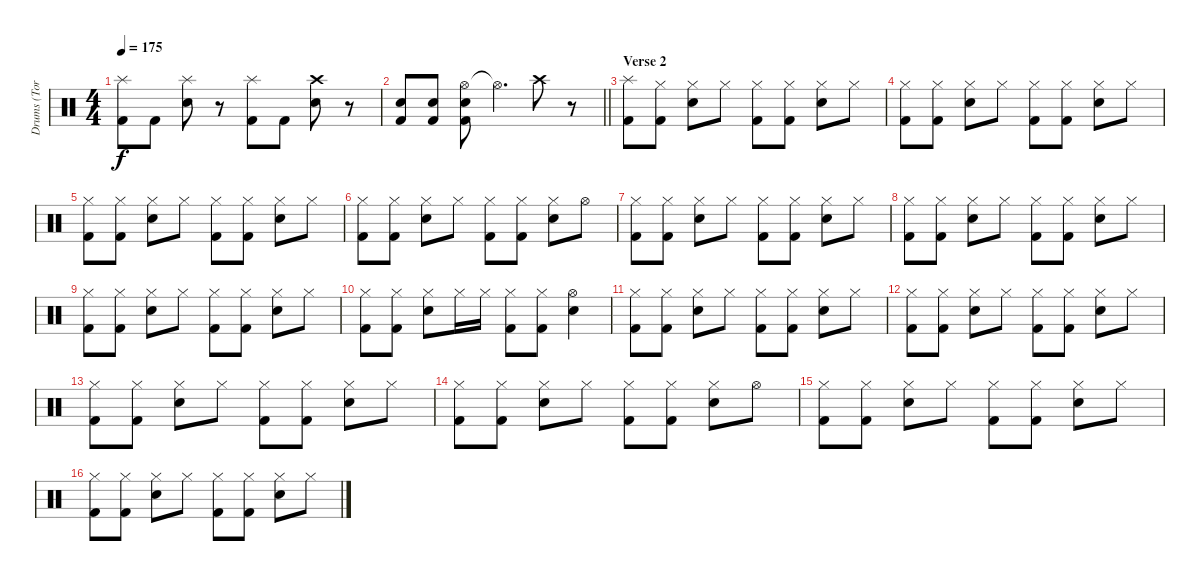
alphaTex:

\track ("Drums (Tora)" "Drums (Tor") {instrument percussion}
\staff {score}
\articulation defaults
\ts (4 4)
\tempo 175
\clef neutral
\ks c
("Splash (hit)" "Kick (hit) 2").8{dy f} "Kick (hit) 2".8 ("Splash (hit)" "Electric Snare (hit)").8 r.8 ("Splash (hit)" "Kick (hit) 2").8 "Kick (hit) 2".8 ("Crash high (hit)" "Electric Snare (hit)").8 r.8 |
\barLineRight lightlight
("Electric Snare (hit)" "Kick (hit) 2").8 ("Electric Snare (hit)" "Kick (hit) 2").8 ("Hi-Hat (open)" "Electric Snare (hit)" "Kick (hit) 2").8 "Hi-Hat (open)"{t}.4{d} "Crash high (hit)".8 r.8 |
\section ("" "Verse 2")
("Splash (hit)" "Kick (hit) 2").8 ("Hi-Hat (closed)" "Kick (hit) 2").8 ("Hi-Hat (closed)" "Electric Snare (hit)").8 "Hi-Hat (closed)".8 ("Hi-Hat (closed)" "Kick (hit) 2").8 ("Hi-Hat (closed)" "Kick (hit) 2").8 ("Hi-Hat (closed)" "Electric Snare (hit)").8 "Hi-Hat (closed)".8 |
("Hi-Hat (closed)" "Kick (hit) 2").8 ("Hi-Hat (closed)" "Kick (hit) 2").8 ("Hi-Hat (closed)" "Electric Snare (hit)").8 "Hi-Hat (closed)".8 ("Hi-Hat (closed)" "Kick (hit) 2").8 ("Hi-Hat (closed)" "Kick (hit) 2").8 ("Hi-Hat (closed)" "Electric Snare (hit)").8 "Hi-Hat (closed)".8 |
("Hi-Hat (closed)" "Kick (hit) 2").8 ("Hi-Hat (closed)" "Kick (hit) 2").8 ("Hi-Hat (closed)" "Electric Snare (hit)").8 "Hi-Hat (closed)".8 ("Hi-Hat (closed)" "Kick (hit) 2").8 ("Hi-Hat (closed)" "Kick (hit) 2").8 ("Hi-Hat (closed)" "Electric Snare (hit)").8 "Hi-Hat (closed)".8 |
("Hi-Hat (closed)" "Kick (hit) 2").8 ("Hi-Hat (closed)" "Kick (hit) 2").8 ("Hi-Hat (closed)" "Electric Snare (hit)").8 "Hi-Hat (closed)".8 ("Hi-Hat (closed)" "Kick (hit) 2").8 ("Hi-Hat (closed)" "Kick (hit) 2").8 ("Hi-Hat (closed)" "Electric Snare (hit)").8 "Hi-Hat (open)".8 |
("Hi-Hat (closed)" "Kick (hit) 2").8 ("Hi-Hat (closed)" "Kick (hit) 2").8 ("Hi-Hat (closed)" "Electric Snare (hit)").8 "Hi-Hat (closed)".8 ("Hi-Hat (closed)" "Kick (hit) 2").8 ("Hi-Hat (closed)" "Kick (hit) 2").8 ("Hi-Hat (closed)" "Electric Snare (hit)").8 "Hi-Hat (closed)".8 |
("Hi-Hat (closed)" "Kick (hit) 2").8 ("Hi-Hat (closed)" "Kick (hit) 2").8 ("Hi-Hat (closed)" "Electric Snare (hit)").8 "Hi-Hat (closed)".8 ("Hi-Hat (closed)" "Kick (hit) 2").8 ("Hi-Hat (closed)" "Kick (hit) 2").8 ("Hi-Hat (closed)" "Electric Snare (hit)").8 "Hi-Hat (closed)".8 |
("Hi-Hat (closed)" "Kick (hit) 2").8 ("Hi-Hat (closed)" "Kick (hit) 2").8 ("Hi-Hat (closed)" "Electric Snare (hit)").8 "Hi-Hat (closed)".8 ("Hi-Hat (closed)" "Kick (hit) 2").8 ("Hi-Hat (closed)" "Kick (hit) 2").8 ("Hi-Hat (closed)" "Electric Snare (hit)").8 "Hi-Hat (closed)".8 |
("Hi-Hat (closed)" "Kick (hit) 2").8 ("Hi-Hat (closed)" "Kick (hit) 2").8 ("Hi-Hat (closed)" "Electric Snare (hit)").8 "Hi-Hat (closed)".16 "Hi-Hat (closed)".16 ("Hi-Hat (closed)" "Kick (hit) 2").8 ("Hi-Hat (closed)" "Kick (hit) 2").8 ("Hi-Hat (open)" "Electric Snare (hit)").4 |
("Hi-Hat (closed)" "Kick (hit) 2").8 ("Hi-Hat (closed)" "Kick (hit) 2").8 ("Hi-Hat (closed)" "Electric Snare (hit)").8 "Hi-Hat (closed)".8 ("Hi-Hat (closed)" "Kick (hit) 2").8 ("Hi-Hat (closed)" "Kick (hit) 2").8 ("Hi-Hat (closed)" "Electric Snare (hit)").8 "Hi-Hat (closed)".8 |
("Hi-Hat (closed)" "Kick (hit) 2").8 ("Hi-Hat (closed)" "Kick (hit) 2").8 ("Hi-Hat (closed)" "Electric Snare (hit)").8 "Hi-Hat (closed)".8 ("Hi-Hat (closed)" "Kick (hit) 2").8 ("Hi-Hat (closed)" "Kick (hit) 2").8 ("Hi-Hat (closed)" "Electric Snare (hit)").8 "Hi-Hat (closed)".8 |
("Hi-Hat (closed)" "Kick (hit) 2").8 ("Hi-Hat (closed)" "Kick (hit) 2").8 ("Hi-Hat (closed)" "Electric Snare (hit)").8 "Hi-Hat (closed)".8 ("Hi-Hat (closed)" "Kick (hit) 2").8 ("Hi-Hat (closed)" "Kick (hit) 2").8 ("Hi-Hat (closed)" "Electric Snare (hit)").8 "Hi-Hat (closed)".8 |
("Hi-Hat (closed)" "Kick (hit) 2").8 ("Hi-Hat (closed)" "Kick (hit) 2").8 ("Hi-Hat (closed)" "Electric Snare (hit)").8 "Hi-Hat (closed)".8 ("Hi-Hat (closed)" "Kick (hit) 2").8 ("Hi-Hat (closed)" "Kick (hit) 2").8 ("Hi-Hat (closed)" "Electric Snare (hit)").8 "Hi-Hat (open)".8 |
("Hi-Hat (closed)" "Kick (hit) 2").8 ("Hi-Hat (closed)" "Kick (hit) 2").8 ("Hi-Hat (closed)" "Electric Snare (hit)").8 "Hi-Hat (closed)".8 ("Hi-Hat (closed)" "Kick (hit) 2").8 ("Hi-Hat (closed)" "Kick (hit) 2").8 ("Hi-Hat (closed)" "Electric Snare (hit)").8 "Hi-Hat (closed)".8 |
("Hi-Hat (closed)" "Kick (hit) 2").8 ("Hi-Hat (closed)" "Kick (hit) 2").8 ("Hi-Hat (closed)" "Electric Snare (hit)").8 "Hi-Hat (closed)".8 ("Hi-Hat (closed)" "Kick (hit) 2").8 ("Hi-Hat (closed)" "Kick (hit) 2").8 ("Hi-Hat (closed)" "Electric Snare (hit)").8 "Hi-Hat (closed)".8
